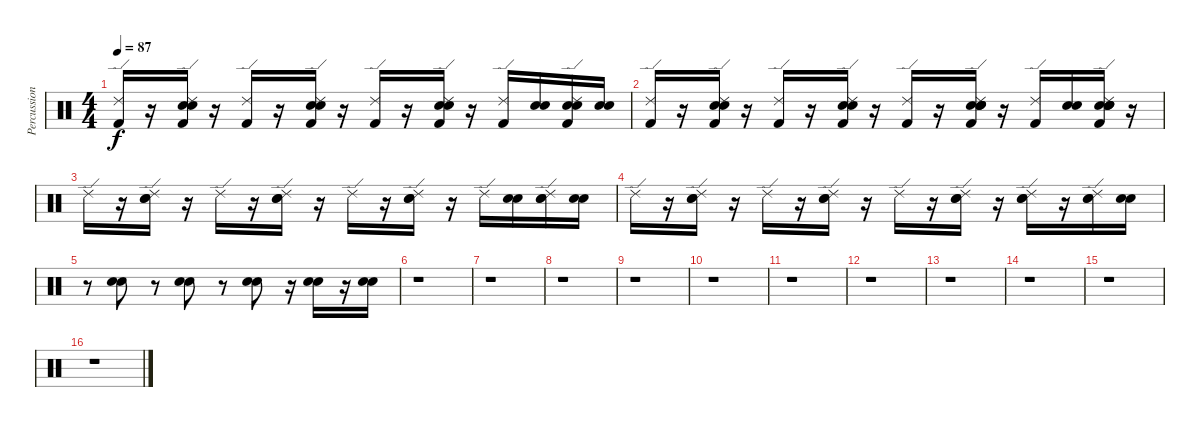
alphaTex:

\track ("Percussion" "Percussion") {instrument percussion}
\staff {score}
\articulation defaults
\ts (4 4)
\tempo 87
\clef neutral
\ks c
("Ride (edge) 2" "Kick (hit) 2").16{dy f} r.16 ("Ride (edge) 2" "Hand Clap (hit)" "Electric Snare (hit)" "Kick (hit) 2").16 r.16 ("Ride (edge) 2" "Kick (hit) 2").16 r.16 ("Ride (edge) 2" "Hand Clap (hit)" "Electric Snare (hit)" "Kick (hit) 2").16 r.16 ("Ride (edge) 2" "Kick (hit) 2").16 r.16 ("Ride (edge) 2" "Hand Clap (hit)" "Electric Snare (hit)" "Kick (hit) 2").16 r.16 ("Ride (edge) 2" "Kick (hit) 2").16 ("Hand Clap (hit)" "Hand Clap (hit)").16 ("Ride (edge) 2" "Hand Clap (hit)" "Electric Snare (hit)" "Kick (hit) 2").16 ("Hand Clap (hit)" "Hand Clap (hit)").16 |
("Ride (edge) 2" "Kick (hit) 2").16 r.16 ("Ride (edge) 2" "Hand Clap (hit)" "Electric Snare (hit)" "Kick (hit) 2").16 r.16 ("Ride (edge) 2" "Kick (hit) 2").16 r.16 ("Ride (edge) 2" "Hand Clap (hit)" "Electric Snare (hit)" "Kick (hit) 2").16 r.16 ("Ride (edge) 2" "Kick (hit) 2").16 r.16 ("Hand Clap (hit)" "Ride (edge) 2" "Hand Clap (hit)" "Hand Clap (hit)" "Electric Snare (hit)" "Kick (hit) 2").16 r.16 ("Ride (edge) 2" "Kick (hit) 2").16 ("Hand Clap (hit)" "Hand Clap (hit)").16 ("Hand Clap (hit)" "Ride (edge) 2" "Hand Clap (hit)" "Hand Clap (hit)" "Electric Snare (hit)" "Kick (hit) 2").16 r.16 |
"Ride (edge) 2".16 r.16 ("Ride (edge) 2" "Hand Clap (hit)" "Electric Snare (hit)").16 r.16 "Ride (edge) 2".16 r.16 ("Ride (edge) 2" "Hand Clap (hit)" "Electric Snare (hit)").16 r.16 "Ride (edge) 2".16 r.16 ("Ride (edge) 2" "Hand Clap (hit)" "Electric Snare (hit)").16 r.16 "Ride (edge) 2".16 ("Hand Clap (hit)" "Hand Clap (hit)").16 ("Ride (edge) 2" "Hand Clap (hit)" "Electric Snare (hit)").16 ("Hand Clap (hit)" "Hand Clap (hit)").16 |
"Ride (edge) 2".16 r.16 ("Ride (edge) 2" "Hand Clap (hit)" "Electric Snare (hit)").16 r.16 "Ride (edge) 2".16 r.16 ("Ride (edge) 2" "Hand Clap (hit)" "Electric Snare (hit)").16 r.16 "Ride (edge) 2".16 r.16 ("Ride (edge) 2" "Hand Clap (hit)" "Electric Snare (hit)").16 r.16 ("Hand Clap (hit)" "Ride (edge) 2" "Hand Clap (hit)").16 r.16 ("Ride (edge) 2" "Hand Clap (hit)" "Electric Snare (hit)").16 ("Hand Clap (hit)" "Hand Clap (hit)").16 |
r.8 ("Hand Clap (hit)" "Electric Snare (hit)").8 r.8 ("Hand Clap (hit)" "Electric Snare (hit)").8 r.8 ("Hand Clap (hit)" "Electric Snare (hit)").8 r.16 ("Hand Clap (hit)" "Hand Clap (hit)").16 r.16 ("Hand Clap (hit)" "Hand Clap (hit)").16 |
r.1 |
r.1 |
r.1 |
r.1 |
r.1 |
r.1 |
r.1 |
r.1 |
r.1 |
r.1 |
r.1
